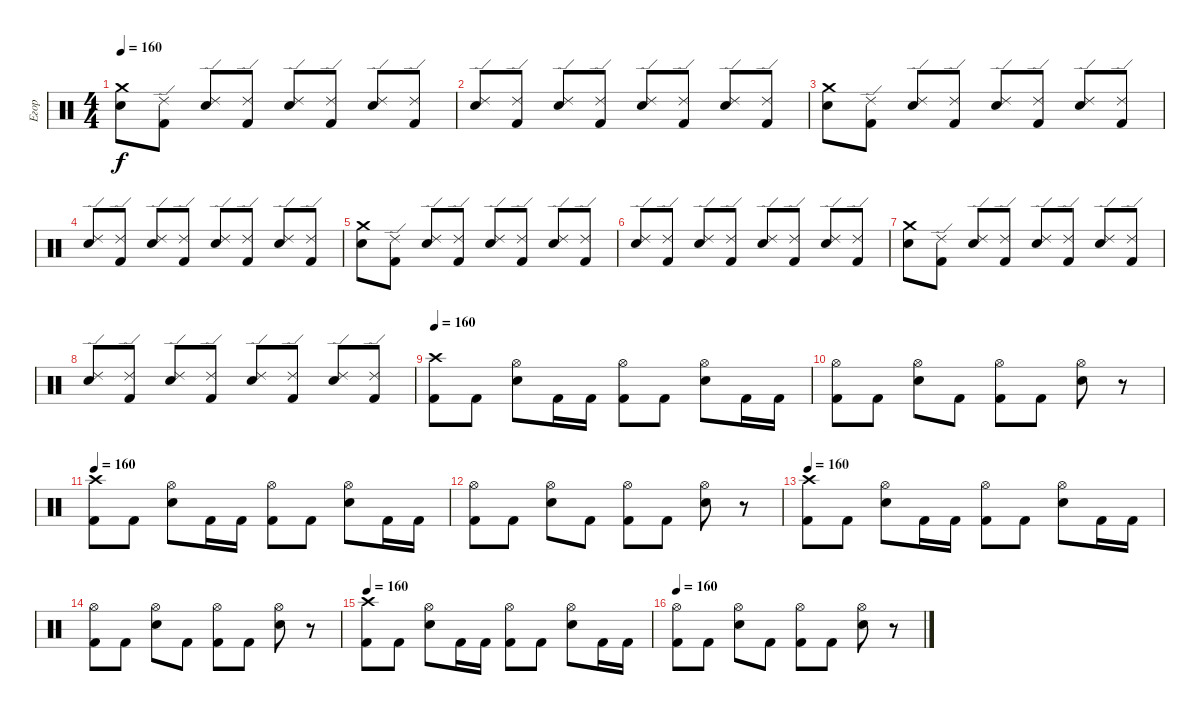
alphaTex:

\track ("Егор" "Егор") {instrument percussion}
\staff {score}
\articulation defaults
\ts (4 4)
\tempo 160
\clef neutral
\ks c
("Crash medium (hit)" "Snare (hit) 2").8{dy f} ("Ride (edge) 2" "Kick (hit) 2").8 ("Ride (edge) 2" "Snare (hit) 2").8 ("Ride (edge) 2" "Kick (hit) 2").8 ("Ride (edge) 2" "Snare (hit) 2").8 ("Ride (edge) 2" "Kick (hit) 2").8 ("Ride (edge) 2" "Snare (hit) 2").8 ("Ride (edge) 2" "Kick (hit) 2").8 |
("Ride (edge) 2" "Snare (hit) 2").8 ("Ride (edge) 2" "Kick (hit) 2").8 ("Ride (edge) 2" "Snare (hit) 2").8 ("Ride (edge) 2" "Kick (hit) 2").8 ("Ride (edge) 2" "Snare (hit) 2").8 ("Ride (edge) 2" "Kick (hit) 2").8 ("Ride (edge) 2" "Snare (hit) 2").8 ("Ride (edge) 2" "Kick (hit) 2").8 |
("Crash medium (hit)" "Snare (hit) 2").8 ("Ride (edge) 2" "Kick (hit) 2").8 ("Ride (edge) 2" "Snare (hit) 2").8 ("Ride (edge) 2" "Kick (hit) 2").8 ("Ride (edge) 2" "Snare (hit) 2").8 ("Ride (edge) 2" "Kick (hit) 2").8 ("Ride (edge) 2" "Snare (hit) 2").8 ("Ride (edge) 2" "Kick (hit) 2").8 |
("Ride (edge) 2" "Snare (hit) 2").8 ("Ride (edge) 2" "Kick (hit) 2").8 ("Ride (edge) 2" "Snare (hit) 2").8 ("Ride (edge) 2" "Kick (hit) 2").8 ("Ride (edge) 2" "Snare (hit) 2").8 ("Ride (edge) 2" "Kick (hit) 2").8 ("Ride (edge) 2" "Snare (hit) 2").8 ("Ride (edge) 2" "Kick (hit) 2").8 |
("Crash medium (hit)" "Snare (hit) 2").8 ("Ride (edge) 2" "Kick (hit) 2").8 ("Ride (edge) 2" "Snare (hit) 2").8 ("Ride (edge) 2" "Kick (hit) 2").8 ("Ride (edge) 2" "Snare (hit) 2").8 ("Ride (edge) 2" "Kick (hit) 2").8 ("Ride (edge) 2" "Snare (hit) 2").8 ("Ride (edge) 2" "Kick (hit) 2").8 |
("Ride (edge) 2" "Snare (hit) 2").8 ("Ride (edge) 2" "Kick (hit) 2").8 ("Ride (edge) 2" "Snare (hit) 2").8 ("Ride (edge) 2" "Kick (hit) 2").8 ("Ride (edge) 2" "Snare (hit) 2").8 ("Ride (edge) 2" "Kick (hit) 2").8 ("Ride (edge) 2" "Snare (hit) 2").8 ("Ride (edge) 2" "Kick (hit) 2").8 |
("Crash medium (hit)" "Snare (hit) 2").8 ("Ride (edge) 2" "Kick (hit) 2").8 ("Ride (edge) 2" "Snare (hit) 2").8 ("Ride (edge) 2" "Kick (hit) 2").8 ("Ride (edge) 2" "Snare (hit) 2").8 ("Ride (edge) 2" "Kick (hit) 2").8 ("Ride (edge) 2" "Snare (hit) 2").8 ("Ride (edge) 2" "Kick (hit) 2").8 |
("Ride (edge) 2" "Snare (hit) 2").8 ("Ride (edge) 2" "Kick (hit) 2").8 ("Ride (edge) 2" "Snare (hit) 2").8 ("Ride (edge) 2" "Kick (hit) 2").8 ("Ride (edge) 2" "Snare (hit) 2").8 ("Ride (edge) 2" "Kick (hit) 2").8 ("Ride (edge) 2" "Snare (hit) 2").8 ("Ride (edge) 2" "Kick (hit) 2").8 |
\tempo 160
("Crash high (hit)" "Kick (hit) 2").8 "Kick (hit) 2".8 ("Hi-Hat (open)" "Snare (hit) 2").8 "Kick (hit) 2".16 "Kick (hit) 2".16 ("Hi-Hat (open)" "Kick (hit) 2").8 "Kick (hit) 2".8 ("Hi-Hat (open)" "Snare (hit) 2").8 "Kick (hit) 2".16 "Kick (hit) 2".16 |
("Hi-Hat (open)" "Kick (hit) 2").8 "Kick (hit) 2".8 ("Hi-Hat (open)" "Snare (hit) 2").8 "Kick (hit) 2".8 ("Hi-Hat (open)" "Kick (hit) 2").8 "Kick (hit) 2".8 ("Hi-Hat (open)" "Snare (hit) 2").8 r.8 |
\tempo 160
("Crash high (hit)" "Kick (hit) 2").8 "Kick (hit) 2".8 ("Hi-Hat (open)" "Snare (hit) 2").8 "Kick (hit) 2".16 "Kick (hit) 2".16 ("Hi-Hat (open)" "Kick (hit) 2").8 "Kick (hit) 2".8 ("Hi-Hat (open)" "Snare (hit) 2").8 "Kick (hit) 2".16 "Kick (hit) 2".16 |
("Hi-Hat (open)" "Kick (hit) 2").8 "Kick (hit) 2".8 ("Hi-Hat (open)" "Snare (hit) 2").8 "Kick (hit) 2".8 ("Hi-Hat (open)" "Kick (hit) 2").8 "Kick (hit) 2".8 ("Hi-Hat (open)" "Snare (hit) 2").8 r.8 |
\tempo 160
("Crash high (hit)" "Kick (hit) 2").8 "Kick (hit) 2".8 ("Hi-Hat (open)" "Snare (hit) 2").8 "Kick (hit) 2".16 "Kick (hit) 2".16 ("Hi-Hat (open)" "Kick (hit) 2").8 "Kick (hit) 2".8 ("Hi-Hat (open)" "Snare (hit) 2").8 "Kick (hit) 2".16 "Kick (hit) 2".16 |
("Hi-Hat (open)" "Kick (hit) 2").8 "Kick (hit) 2".8 ("Hi-Hat (open)" "Snare (hit) 2").8 "Kick (hit) 2".8 ("Hi-Hat (open)" "Kick (hit) 2").8 "Kick (hit) 2".8 ("Hi-Hat (open)" "Snare (hit) 2").8 r.8 |
\tempo 160
("Crash high (hit)" "Kick (hit) 2").8 "Kick (hit) 2".8 ("Hi-Hat (open)" "Snare (hit) 2").8 "Kick (hit) 2".16 "Kick (hit) 2".16 ("Hi-Hat (open)" "Kick (hit) 2").8 "Kick (hit) 2".8 ("Hi-Hat (open)" "Snare (hit) 2").8 "Kick (hit) 2".16 "Kick (hit) 2".16 |
\tempo 160
("Hi-Hat (open)" "Kick (hit) 2").8 "Kick (hit) 2".8 ("Hi-Hat (open)" "Snare (hit) 2").8 "Kick (hit) 2".8 ("Hi-Hat (open)" "Kick (hit) 2").8 "Kick (hit) 2".8 ("Hi-Hat (open)" "Snare (hit) 2").8 r.8
